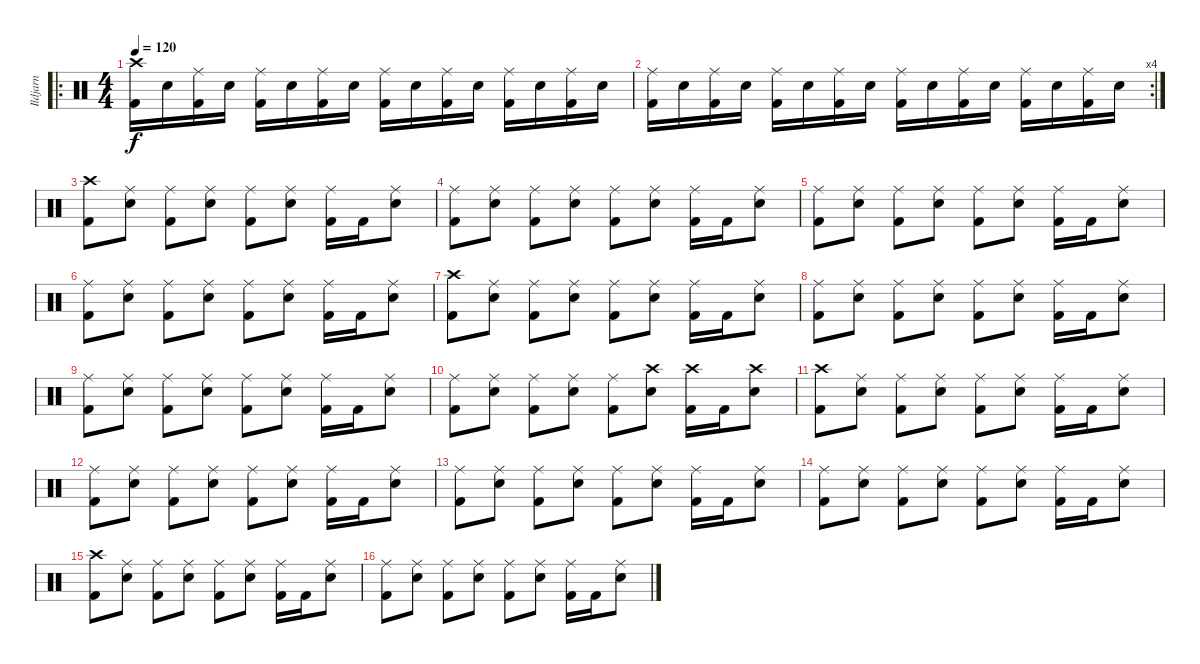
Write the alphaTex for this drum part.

\track ("Ildjarn" "Ildjarn") {instrument percussion}
\staff {score}
\articulation defaults
\ro
\ts (4 4)
\tempo 120
\clef neutral
\ks c
("Crash high (hit)" "Kick (hit) 2").16{dy f} "Snare (hit) 2".16 ("Ride (middle)" "Kick (hit) 2").16 "Snare (hit) 2".16 ("Ride (middle)" "Kick (hit) 2").16 "Snare (hit) 2".16 ("Ride (middle)" "Kick (hit) 2").16 "Snare (hit) 2".16 ("Ride (middle)" "Kick (hit) 2").16 "Snare (hit) 2".16 ("Ride (middle)" "Kick (hit) 2").16 "Snare (hit) 2".16 ("Ride (middle)" "Kick (hit) 2").16 "Snare (hit) 2".16 ("Ride (middle)" "Kick (hit) 2").16 "Snare (hit) 2".16 |
\rc 4
("Ride (middle)" "Kick (hit) 2").16 "Snare (hit) 2".16 ("Ride (middle)" "Kick (hit) 2").16 "Snare (hit) 2".16 ("Ride (middle)" "Kick (hit) 2").16 "Snare (hit) 2".16 ("Ride (middle)" "Kick (hit) 2").16 "Snare (hit) 2".16 ("Ride (middle)" "Kick (hit) 2").16 "Snare (hit) 2".16 ("Ride (middle)" "Kick (hit) 2").16 "Snare (hit) 2".16 ("Ride (middle)" "Kick (hit) 2").16 "Snare (hit) 2".16 ("Ride (middle)" "Kick (hit) 2").16 "Snare (hit) 2".16 |
("Crash high (hit)" "Kick (hit) 2").8 ("Ride (middle)" "Snare (hit) 2").8 ("Ride (middle)" "Kick (hit) 2").8 ("Ride (middle)" "Snare (hit) 2").8 ("Ride (middle)" "Kick (hit) 2").8 ("Ride (middle)" "Snare (hit) 2").8 ("Ride (middle)" "Kick (hit) 2").16 "Kick (hit) 2".16 ("Ride (middle)" "Snare (hit) 2").8 |
("Ride (middle)" "Kick (hit) 2").8 ("Ride (middle)" "Snare (hit) 2").8 ("Ride (middle)" "Kick (hit) 2").8 ("Ride (middle)" "Snare (hit) 2").8 ("Ride (middle)" "Kick (hit) 2").8 ("Ride (middle)" "Snare (hit) 2").8 ("Ride (middle)" "Kick (hit) 2").16 "Kick (hit) 2".16 ("Ride (middle)" "Snare (hit) 2").8 |
("Ride (middle)" "Kick (hit) 2").8 ("Ride (middle)" "Snare (hit) 2").8 ("Ride (middle)" "Kick (hit) 2").8 ("Ride (middle)" "Snare (hit) 2").8 ("Ride (middle)" "Kick (hit) 2").8 ("Ride (middle)" "Snare (hit) 2").8 ("Ride (middle)" "Kick (hit) 2").16 "Kick (hit) 2".16 ("Ride (middle)" "Snare (hit) 2").8 |
("Ride (middle)" "Kick (hit) 2").8 ("Ride (middle)" "Snare (hit) 2").8 ("Ride (middle)" "Kick (hit) 2").8 ("Ride (middle)" "Snare (hit) 2").8 ("Ride (middle)" "Kick (hit) 2").8 ("Ride (middle)" "Snare (hit) 2").8 ("Ride (middle)" "Kick (hit) 2").16 "Kick (hit) 2".16 ("Ride (middle)" "Snare (hit) 2").8 |
("Crash high (hit)" "Kick (hit) 2").8 ("Ride (middle)" "Snare (hit) 2").8 ("Ride (middle)" "Kick (hit) 2").8 ("Ride (middle)" "Snare (hit) 2").8 ("Ride (middle)" "Kick (hit) 2").8 ("Ride (middle)" "Snare (hit) 2").8 ("Ride (middle)" "Kick (hit) 2").16 "Kick (hit) 2".16 ("Ride (middle)" "Snare (hit) 2").8 |
("Ride (middle)" "Kick (hit) 2").8 ("Ride (middle)" "Snare (hit) 2").8 ("Ride (middle)" "Kick (hit) 2").8 ("Ride (middle)" "Snare (hit) 2").8 ("Ride (middle)" "Kick (hit) 2").8 ("Ride (middle)" "Snare (hit) 2").8 ("Ride (middle)" "Kick (hit) 2").16 "Kick (hit) 2".16 ("Ride (middle)" "Snare (hit) 2").8 |
("Ride (middle)" "Kick (hit) 2").8 ("Ride (middle)" "Snare (hit) 2").8 ("Ride (middle)" "Kick (hit) 2").8 ("Ride (middle)" "Snare (hit) 2").8 ("Ride (middle)" "Kick (hit) 2").8 ("Ride (middle)" "Snare (hit) 2").8 ("Ride (middle)" "Kick (hit) 2").16 "Kick (hit) 2".16 ("Ride (middle)" "Snare (hit) 2").8 |
("Ride (middle)" "Kick (hit) 2").8 ("Ride (middle)" "Snare (hit) 2").8 ("Ride (middle)" "Kick (hit) 2").8 ("Ride (middle)" "Snare (hit) 2").8 ("Ride (middle)" "Kick (hit) 2").8 ("Crash high (hit)" "Snare (hit) 2").8 ("Crash high (hit)" "Kick (hit) 2").16 "Kick (hit) 2".16 ("Crash high (hit)" "Snare (hit) 2").8 |
("Crash high (hit)" "Kick (hit) 2").8 ("Ride (middle)" "Snare (hit) 2").8 ("Ride (middle)" "Kick (hit) 2").8 ("Ride (middle)" "Snare (hit) 2").8 ("Ride (middle)" "Kick (hit) 2").8 ("Ride (middle)" "Snare (hit) 2").8 ("Ride (middle)" "Kick (hit) 2").16 "Kick (hit) 2".16 ("Ride (middle)" "Snare (hit) 2").8 |
("Ride (middle)" "Kick (hit) 2").8 ("Ride (middle)" "Snare (hit) 2").8 ("Ride (middle)" "Kick (hit) 2").8 ("Ride (middle)" "Snare (hit) 2").8 ("Ride (middle)" "Kick (hit) 2").8 ("Ride (middle)" "Snare (hit) 2").8 ("Ride (middle)" "Kick (hit) 2").16 "Kick (hit) 2".16 ("Ride (middle)" "Snare (hit) 2").8 |
("Ride (middle)" "Kick (hit) 2").8 ("Ride (middle)" "Snare (hit) 2").8 ("Ride (middle)" "Kick (hit) 2").8 ("Ride (middle)" "Snare (hit) 2").8 ("Ride (middle)" "Kick (hit) 2").8 ("Ride (middle)" "Snare (hit) 2").8 ("Ride (middle)" "Kick (hit) 2").16 "Kick (hit) 2".16 ("Ride (middle)" "Snare (hit) 2").8 |
("Ride (middle)" "Kick (hit) 2").8 ("Ride (middle)" "Snare (hit) 2").8 ("Ride (middle)" "Kick (hit) 2").8 ("Ride (middle)" "Snare (hit) 2").8 ("Ride (middle)" "Kick (hit) 2").8 ("Ride (middle)" "Snare (hit) 2").8 ("Ride (middle)" "Kick (hit) 2").16 "Kick (hit) 2".16 ("Ride (middle)" "Snare (hit) 2").8 |
("Crash high (hit)" "Kick (hit) 2").8 ("Ride (middle)" "Snare (hit) 2").8 ("Ride (middle)" "Kick (hit) 2").8 ("Ride (middle)" "Snare (hit) 2").8 ("Ride (middle)" "Kick (hit) 2").8 ("Ride (middle)" "Snare (hit) 2").8 ("Ride (middle)" "Kick (hit) 2").16 "Kick (hit) 2".16 ("Ride (middle)" "Snare (hit) 2").8 |
("Ride (middle)" "Kick (hit) 2").8 ("Ride (middle)" "Snare (hit) 2").8 ("Ride (middle)" "Kick (hit) 2").8 ("Ride (middle)" "Snare (hit) 2").8 ("Ride (middle)" "Kick (hit) 2").8 ("Ride (middle)" "Snare (hit) 2").8 ("Ride (middle)" "Kick (hit) 2").16 "Kick (hit) 2".16 ("Ride (middle)" "Snare (hit) 2").8
